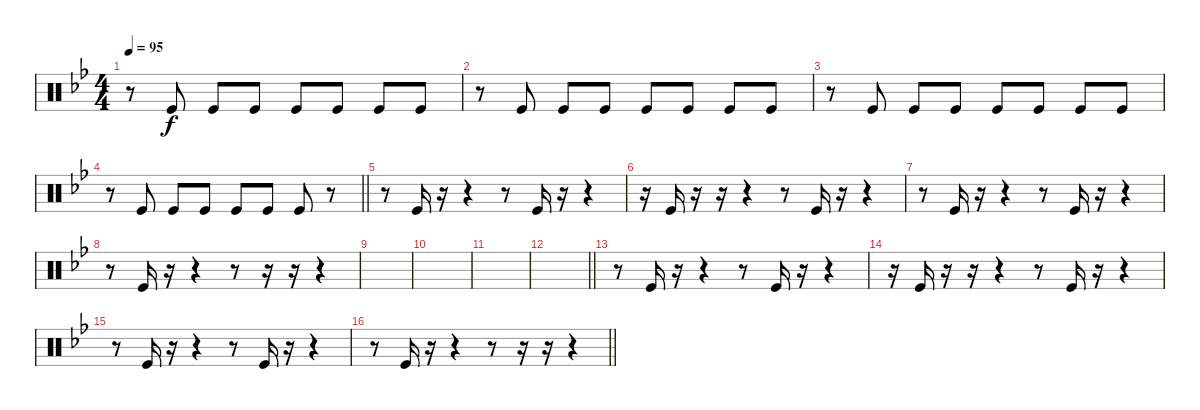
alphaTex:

\track "" {instrument percussion}
\staff {score}
\articulation defaults
\ts (4 4)
\tempo 95
\clef neutral
\ks bb
r.8{dy f} "Kick (hit)".8 "Kick (hit)".8 "Kick (hit)".8 "Kick (hit)".8 "Kick (hit)".8 "Kick (hit)".8 "Kick (hit)".8 |
r.8 "Kick (hit)".8 "Kick (hit)".8 "Kick (hit)".8 "Kick (hit)".8 "Kick (hit)".8 "Kick (hit)".8 "Kick (hit)".8 |
r.8 "Kick (hit)".8 "Kick (hit)".8 "Kick (hit)".8 "Kick (hit)".8 "Kick (hit)".8 "Kick (hit)".8 "Kick (hit)".8 |
\barLineRight lightlight
r.8 "Kick (hit)".8 "Kick (hit)".8 "Kick (hit)".8 "Kick (hit)".8 "Kick (hit)".8 "Kick (hit)".8 r.8 |
r.8 "Kick (hit)".16 r.16 r.4 r.8 "Kick (hit)".16 r.16 r.4 |
r.16 "Kick (hit)".16 r.16 r.16 r.4 r.8 "Kick (hit)".16 r.16 r.4 |
r.8 "Kick (hit)".16 r.16 r.4 r.8 "Kick (hit)".16 r.16 r.4 |
r.8 "Kick (hit)".16 r.16 r.4 r.8 r.16 r.16 r.4 |
|
|
|
\barLineRight lightlight
|
r.8 "Kick (hit)".16 r.16 r.4 r.8 "Kick (hit)".16 r.16 r.4 |
r.16 "Kick (hit)".16 r.16 r.16 r.4 r.8 "Kick (hit)".16 r.16 r.4 |
r.8 "Kick (hit)".16 r.16 r.4 r.8 "Kick (hit)".16 r.16 r.4 |
\barLineRight lightlight
r.8 "Kick (hit)".16 r.16 r.4 r.8 r.16 r.16 r.4
